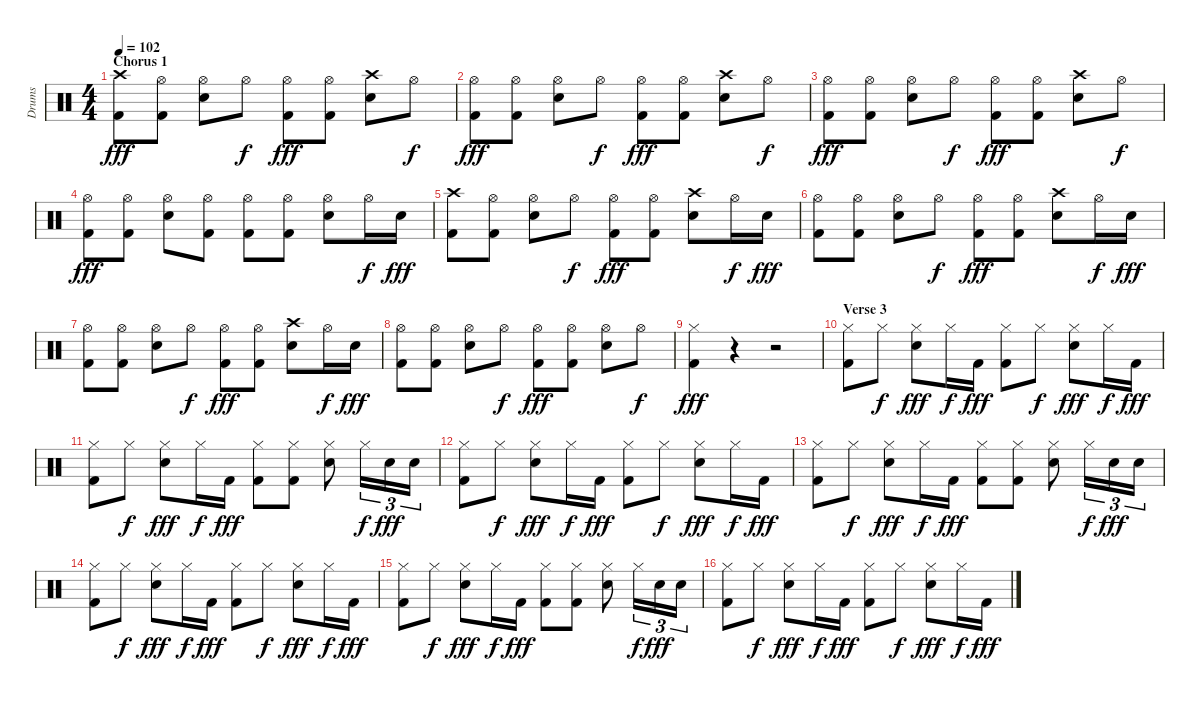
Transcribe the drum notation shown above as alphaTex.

\track ("Drums" "Drums") {instrument percussion}
\staff {score}
\articulation defaults
\ts (4 4)
\section ("" "Chorus 1")
\tempo 102
\clef neutral
\ks c
("Crash high (hit)" "Kick (hit) 2").8{dy fff} ("Hi-Hat (open)" "Kick (hit) 2").8 ("Hi-Hat (open)" "Electric Snare (hit)").8 "Hi-Hat (open)".8{dy f} ("Hi-Hat (open)" "Kick (hit) 2").8{dy fff} ("Hi-Hat (open)" "Kick (hit) 2").8 ("Crash high (hit)" "Electric Snare (hit)").8 "Hi-Hat (open)".8{dy f} |
("Hi-Hat (open)" "Kick (hit) 2").8{dy fff} ("Hi-Hat (open)" "Kick (hit) 2").8 ("Hi-Hat (open)" "Electric Snare (hit)").8 "Hi-Hat (open)".8{dy f} ("Hi-Hat (open)" "Kick (hit) 2").8{dy fff} ("Hi-Hat (open)" "Kick (hit) 2").8 ("Crash high (hit)" "Electric Snare (hit)").8 "Hi-Hat (open)".8{dy f} |
("Hi-Hat (open)" "Kick (hit) 2").8{dy fff} ("Hi-Hat (open)" "Kick (hit) 2").8 ("Hi-Hat (open)" "Electric Snare (hit)").8 "Hi-Hat (open)".8{dy f} ("Hi-Hat (open)" "Kick (hit) 2").8{dy fff} ("Hi-Hat (open)" "Kick (hit) 2").8 ("Crash high (hit)" "Electric Snare (hit)").8 "Hi-Hat (open)".8{dy f} |
("Hi-Hat (open)" "Kick (hit) 2").8{dy fff} ("Hi-Hat (open)" "Kick (hit) 2").8 ("Hi-Hat (open)" "Electric Snare (hit)").8 ("Hi-Hat (open)" "Kick (hit) 2").8 ("Hi-Hat (open)" "Kick (hit) 2").8 ("Hi-Hat (open)" "Kick (hit) 2").8 ("Hi-Hat (open)" "Electric Snare (hit)").8 "Hi-Hat (open)".16{dy f} "Electric Snare (hit)".16{dy fff} |
("Crash high (hit)" "Kick (hit) 2").8 ("Hi-Hat (open)" "Kick (hit) 2").8 ("Hi-Hat (open)" "Electric Snare (hit)").8 "Hi-Hat (open)".8{dy f} ("Hi-Hat (open)" "Kick (hit) 2").8{dy fff} ("Hi-Hat (open)" "Kick (hit) 2").8 ("Crash high (hit)" "Electric Snare (hit)").8 "Hi-Hat (open)".16{dy f} "Electric Snare (hit)".16{dy fff} |
("Hi-Hat (open)" "Kick (hit) 2").8 ("Hi-Hat (open)" "Kick (hit) 2").8 ("Hi-Hat (open)" "Electric Snare (hit)").8 "Hi-Hat (open)".8{dy f} ("Hi-Hat (open)" "Kick (hit) 2").8{dy fff} ("Hi-Hat (open)" "Kick (hit) 2").8 ("Crash high (hit)" "Electric Snare (hit)").8 "Hi-Hat (open)".16{dy f} "Electric Snare (hit)".16{dy fff} |
("Hi-Hat (open)" "Kick (hit) 2").8 ("Hi-Hat (open)" "Kick (hit) 2").8 ("Hi-Hat (open)" "Electric Snare (hit)").8 "Hi-Hat (open)".8{dy f} ("Hi-Hat (open)" "Kick (hit) 2").8{dy fff} ("Hi-Hat (open)" "Kick (hit) 2").8 ("Crash high (hit)" "Electric Snare (hit)").8 "Hi-Hat (open)".16{dy f} "Electric Snare (hit)".16{dy fff} |
("Hi-Hat (open)" "Kick (hit) 2").8 ("Hi-Hat (open)" "Kick (hit) 2").8 ("Hi-Hat (open)" "Electric Snare (hit)").8 "Hi-Hat (open)".8{dy f} ("Hi-Hat (open)" "Kick (hit) 2").8{dy fff} ("Hi-Hat (open)" "Kick (hit) 2").8 ("Hi-Hat (open)" "Electric Snare (hit)").8 "Hi-Hat (open)".8{dy f} |
("Hi-Hat (closed)" "Kick (hit) 2").4{dy fff} r.4 r.2 |
\section ("" "Verse 3")
("Hi-Hat (closed)" "Kick (hit) 2").8 "Hi-Hat (closed)".8{dy f} ("Hi-Hat (closed)" "Electric Snare (hit)").8{dy fff} "Hi-Hat (closed)".16{dy f} "Kick (hit) 2".16{dy fff} ("Hi-Hat (closed)" "Kick (hit) 2").8 "Hi-Hat (closed)".8{dy f} ("Hi-Hat (closed)" "Electric Snare (hit)").8{dy fff} "Hi-Hat (closed)".16{dy f} "Kick (hit) 2".16{dy fff} |
("Hi-Hat (closed)" "Kick (hit) 2").8 "Hi-Hat (closed)".8{dy f} ("Hi-Hat (closed)" "Electric Snare (hit)").8{dy fff} "Hi-Hat (closed)".16{dy f} "Kick (hit) 2".16{dy fff} ("Hi-Hat (closed)" "Kick (hit) 2").8 ("Hi-Hat (closed)" "Kick (hit) 2").8 ("Hi-Hat (closed)" "Electric Snare (hit)").8 "Hi-Hat (closed)".16{tu (3 2) dy f} "Electric Snare (hit)".16{tu (3 2) dy fff} "Electric Snare (hit)".16{tu (3 2)} |
("Hi-Hat (closed)" "Kick (hit) 2").8 "Hi-Hat (closed)".8{dy f} ("Hi-Hat (closed)" "Electric Snare (hit)").8{dy fff} "Hi-Hat (closed)".16{dy f} "Kick (hit) 2".16{dy fff} ("Hi-Hat (closed)" "Kick (hit) 2").8 "Hi-Hat (closed)".8{dy f} ("Hi-Hat (closed)" "Electric Snare (hit)").8{dy fff} "Hi-Hat (closed)".16{dy f} "Kick (hit) 2".16{dy fff} |
("Hi-Hat (closed)" "Kick (hit) 2").8 "Hi-Hat (closed)".8{dy f} ("Hi-Hat (closed)" "Electric Snare (hit)").8{dy fff} "Hi-Hat (closed)".16{dy f} "Kick (hit) 2".16{dy fff} ("Hi-Hat (closed)" "Kick (hit) 2").8 ("Hi-Hat (closed)" "Kick (hit) 2").8 ("Hi-Hat (closed)" "Electric Snare (hit)").8 "Hi-Hat (closed)".16{tu (3 2) dy f} "Electric Snare (hit)".16{tu (3 2) dy fff} "Electric Snare (hit)".16{tu (3 2)} |
("Hi-Hat (closed)" "Kick (hit) 2").8 "Hi-Hat (closed)".8{dy f} ("Hi-Hat (closed)" "Electric Snare (hit)").8{dy fff} "Hi-Hat (closed)".16{dy f} "Kick (hit) 2".16{dy fff} ("Hi-Hat (closed)" "Kick (hit) 2").8 "Hi-Hat (closed)".8{dy f} ("Hi-Hat (closed)" "Electric Snare (hit)").8{dy fff} "Hi-Hat (closed)".16{dy f} "Kick (hit) 2".16{dy fff} |
("Hi-Hat (closed)" "Kick (hit) 2").8 "Hi-Hat (closed)".8{dy f} ("Hi-Hat (closed)" "Electric Snare (hit)").8{dy fff} "Hi-Hat (closed)".16{dy f} "Kick (hit) 2".16{dy fff} ("Hi-Hat (closed)" "Kick (hit) 2").8 ("Hi-Hat (closed)" "Kick (hit) 2").8 ("Hi-Hat (closed)" "Electric Snare (hit)").8 "Hi-Hat (closed)".16{tu (3 2) dy f} "Electric Snare (hit)".16{tu (3 2) dy fff} "Electric Snare (hit)".16{tu (3 2)} |
("Hi-Hat (closed)" "Kick (hit) 2").8 "Hi-Hat (closed)".8{dy f} ("Hi-Hat (closed)" "Electric Snare (hit)").8{dy fff} "Hi-Hat (closed)".16{dy f} "Kick (hit) 2".16{dy fff} ("Hi-Hat (closed)" "Kick (hit) 2").8 "Hi-Hat (closed)".8{dy f} ("Hi-Hat (closed)" "Electric Snare (hit)").8{dy fff} "Hi-Hat (closed)".16{dy f} "Kick (hit) 2".16{dy fff}
